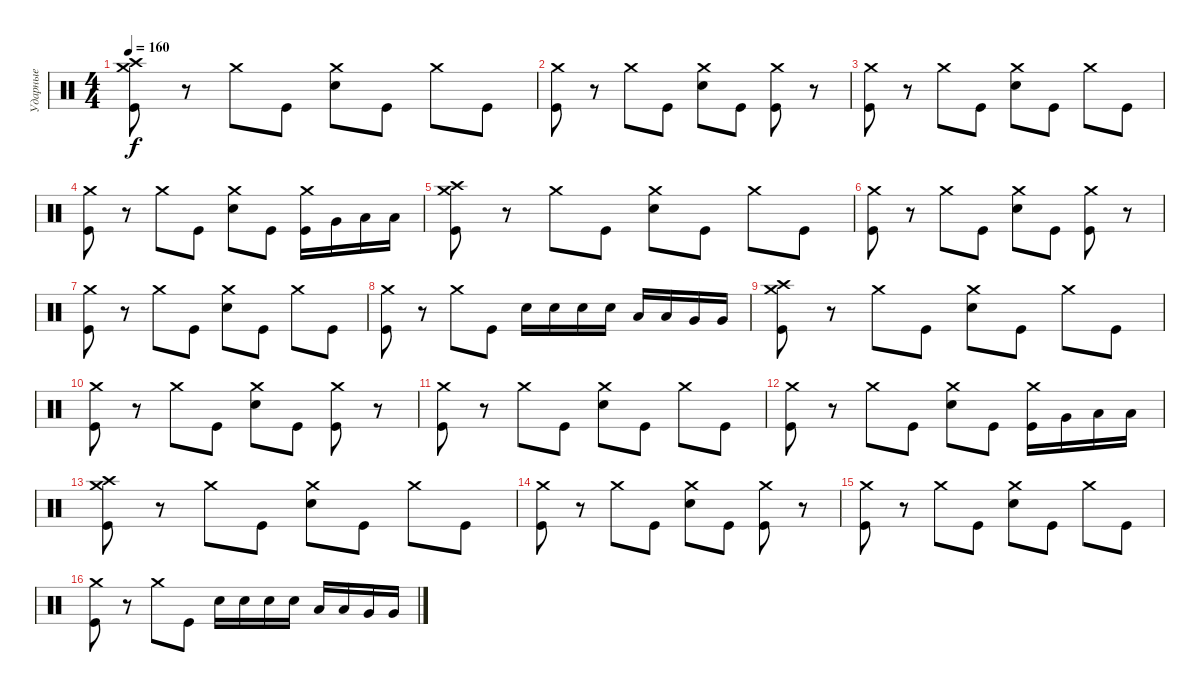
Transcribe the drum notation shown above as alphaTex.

\track ("Ударные" "Ударные") {instrument percussion}
\staff {score}
\articulation defaults
\ts (4 4)
\tempo 160
\clef neutral
\ks c
("Kick (hit)" "Crash medium (hit)" "Crash high (hit)").8{dy f} r.8 "Crash medium (hit)".8 "Kick (hit)".8 ("Electric Snare (hit)" "Crash medium (hit)").8 "Kick (hit)".8 "Crash medium (hit)".8 "Kick (hit)".8 |
("Kick (hit)" "Crash medium (hit)").8 r.8 "Crash medium (hit)".8 "Kick (hit)".8 ("Electric Snare (hit)" "Crash medium (hit)").8 "Kick (hit)".8 ("Kick (hit)" "Crash medium (hit)").8 r.8 |
("Kick (hit)" "Crash medium (hit)").8 r.8 "Crash medium (hit)".8 "Kick (hit)".8 ("Electric Snare (hit)" "Crash medium (hit)").8 "Kick (hit)".8 "Crash medium (hit)".8 "Kick (hit)".8 |
("Kick (hit)" "Crash medium (hit)").8 r.8 "Crash medium (hit)".8 "Kick (hit)".8 ("Electric Snare (hit)" "Crash medium (hit)").8 "Kick (hit)".8 ("Kick (hit)" "Crash medium (hit)").16 "Very Low Tom (hit)".16 "Low Tom (hit)".16 "Low Tom (hit)".16 |
("Kick (hit)" "Crash medium (hit)" "Crash high (hit)").8 r.8 "Crash medium (hit)".8 "Kick (hit)".8 ("Electric Snare (hit)" "Crash medium (hit)").8 "Kick (hit)".8 "Crash medium (hit)".8 "Kick (hit)".8 |
("Kick (hit)" "Crash medium (hit)").8 r.8 "Crash medium (hit)".8 "Kick (hit)".8 ("Electric Snare (hit)" "Crash medium (hit)").8 "Kick (hit)".8 ("Kick (hit)" "Crash medium (hit)").8 r.8 |
("Kick (hit)" "Crash medium (hit)").8 r.8 "Crash medium (hit)".8 "Kick (hit)".8 ("Electric Snare (hit)" "Crash medium (hit)").8 "Kick (hit)".8 "Crash medium (hit)".8 "Kick (hit)".8 |
("Kick (hit)" "Crash medium (hit)").8 r.8 "Crash medium (hit)".8 "Kick (hit)".8 "Electric Snare (hit)".16 "Electric Snare (hit)".16 "Electric Snare (hit)".16 "Electric Snare (hit)".16 "Low Tom (hit)".16 "Low Tom (hit)".16 "Very Low Tom (hit)".16 "Very Low Tom (hit)".16 |
("Kick (hit)" "Crash medium (hit)" "Crash high (hit)").8 r.8 "Crash medium (hit)".8 "Kick (hit)".8 ("Electric Snare (hit)" "Crash medium (hit)").8 "Kick (hit)".8 "Crash medium (hit)".8 "Kick (hit)".8 |
("Kick (hit)" "Crash medium (hit)").8 r.8 "Crash medium (hit)".8 "Kick (hit)".8 ("Electric Snare (hit)" "Crash medium (hit)").8 "Kick (hit)".8 ("Kick (hit)" "Crash medium (hit)").8 r.8 |
("Kick (hit)" "Crash medium (hit)").8 r.8 "Crash medium (hit)".8 "Kick (hit)".8 ("Electric Snare (hit)" "Crash medium (hit)").8 "Kick (hit)".8 "Crash medium (hit)".8 "Kick (hit)".8 |
("Kick (hit)" "Crash medium (hit)").8 r.8 "Crash medium (hit)".8 "Kick (hit)".8 ("Electric Snare (hit)" "Crash medium (hit)").8 "Kick (hit)".8 ("Kick (hit)" "Crash medium (hit)").16 "Very Low Tom (hit)".16 "Low Tom (hit)".16 "Low Tom (hit)".16 |
("Kick (hit)" "Crash medium (hit)" "Crash high (hit)").8 r.8 "Crash medium (hit)".8 "Kick (hit)".8 ("Electric Snare (hit)" "Crash medium (hit)").8 "Kick (hit)".8 "Crash medium (hit)".8 "Kick (hit)".8 |
("Kick (hit)" "Crash medium (hit)").8 r.8 "Crash medium (hit)".8 "Kick (hit)".8 ("Electric Snare (hit)" "Crash medium (hit)").8 "Kick (hit)".8 ("Kick (hit)" "Crash medium (hit)").8 r.8 |
("Kick (hit)" "Crash medium (hit)").8 r.8 "Crash medium (hit)".8 "Kick (hit)".8 ("Electric Snare (hit)" "Crash medium (hit)").8 "Kick (hit)".8 "Crash medium (hit)".8 "Kick (hit)".8 |
("Kick (hit)" "Crash medium (hit)").8 r.8 "Crash medium (hit)".8 "Kick (hit)".8 "Electric Snare (hit)".16 "Electric Snare (hit)".16 "Electric Snare (hit)".16 "Electric Snare (hit)".16 "Low Tom (hit)".16 "Low Tom (hit)".16 "Very Low Tom (hit)".16 "Very Low Tom (hit)".16
